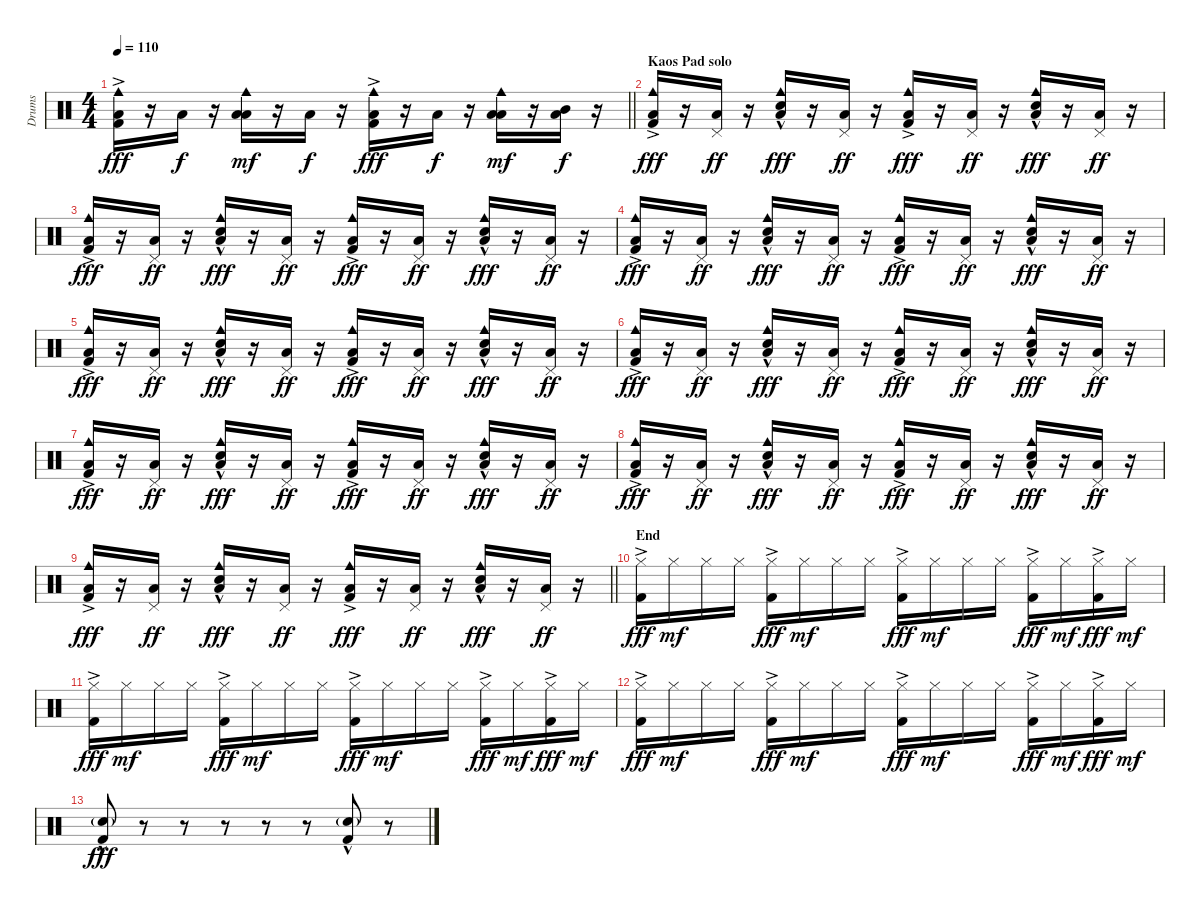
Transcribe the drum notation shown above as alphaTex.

\track ("Drums" "Drums") {instrument percussion}
\staff {score}
\articulation defaults
\ts (4 4)
\tempo 110
\clef neutral
\barLineRight lightlight
\ks c
("Cowbell medium (hit)" "Low Floor Tom (hit)" "Kick (hit) 2"{ac}).16{dy fff} r.16 "Low Floor Tom (hit)".16{dy f} r.16 ("Cowbell medium (hit)" "Low Tom (hit)" "Low Floor Tom (hit)").16{dy mf} r.16 "Low Floor Tom (hit)".16{dy f} r.16 ("Cowbell medium (hit)" "Low Floor Tom (hit)" "Kick (hit) 2"{ac}).16{dy fff} r.16 "Low Floor Tom (hit)".16{dy f} r.16 ("Cowbell medium (hit)" "Low Tom (hit)" "Low Floor Tom (hit)").16{dy mf} r.16 ("Mid Tom (hit)" "Low Floor Tom (hit)").16{dy f} r.16 |
\section ("" "Kaos Pad solo")
("Cowbell medium (hit)" "Low Floor Tom (hit)" "Kick (hit) 2"{ac}).16{dy fff} r.16 ("Pedal Hi-Hat (hit)" "Low Floor Tom (hit)").16{dy ff} r.16 ("Cowbell medium (hit)" "Electric Snare (hit)"{hac} "Low Floor Tom (hit)").16{dy fff} r.16 ("Pedal Hi-Hat (hit)" "Low Floor Tom (hit)").16{dy ff} r.16 ("Cowbell medium (hit)" "Low Floor Tom (hit)" "Kick (hit) 2"{ac}).16{dy fff} r.16 ("Pedal Hi-Hat (hit)" "Low Floor Tom (hit)").16{dy ff} r.16 ("Cowbell medium (hit)" "Electric Snare (hit)"{hac} "Low Floor Tom (hit)").16{dy fff} r.16 ("Pedal Hi-Hat (hit)" "Low Floor Tom (hit)").16{dy ff} r.16 |
("Cowbell medium (hit)" "Low Floor Tom (hit)" "Kick (hit) 2"{ac}).16{dy fff} r.16 ("Pedal Hi-Hat (hit)" "Low Floor Tom (hit)").16{dy ff} r.16 ("Cowbell medium (hit)" "Electric Snare (hit)"{hac} "Low Floor Tom (hit)").16{dy fff} r.16 ("Pedal Hi-Hat (hit)" "Low Floor Tom (hit)").16{dy ff} r.16 ("Cowbell medium (hit)" "Low Floor Tom (hit)" "Kick (hit) 2"{ac}).16{dy fff} r.16 ("Pedal Hi-Hat (hit)" "Low Floor Tom (hit)").16{dy ff} r.16 ("Cowbell medium (hit)" "Electric Snare (hit)"{hac} "Low Floor Tom (hit)").16{dy fff} r.16 ("Pedal Hi-Hat (hit)" "Low Floor Tom (hit)").16{dy ff} r.16 |
("Cowbell medium (hit)" "Low Floor Tom (hit)" "Kick (hit) 2"{ac}).16{dy fff} r.16 ("Pedal Hi-Hat (hit)" "Low Floor Tom (hit)").16{dy ff} r.16 ("Cowbell medium (hit)" "Electric Snare (hit)"{hac} "Low Floor Tom (hit)").16{dy fff} r.16 ("Pedal Hi-Hat (hit)" "Low Floor Tom (hit)").16{dy ff} r.16 ("Cowbell medium (hit)" "Low Floor Tom (hit)" "Kick (hit) 2"{ac}).16{dy fff} r.16 ("Pedal Hi-Hat (hit)" "Low Floor Tom (hit)").16{dy ff} r.16 ("Cowbell medium (hit)" "Electric Snare (hit)"{hac} "Low Floor Tom (hit)").16{dy fff} r.16 ("Pedal Hi-Hat (hit)" "Low Floor Tom (hit)").16{dy ff} r.16 |
("Cowbell medium (hit)" "Low Floor Tom (hit)" "Kick (hit) 2"{ac}).16{dy fff} r.16 ("Pedal Hi-Hat (hit)" "Low Floor Tom (hit)").16{dy ff} r.16 ("Cowbell medium (hit)" "Electric Snare (hit)"{hac} "Low Floor Tom (hit)").16{dy fff} r.16 ("Pedal Hi-Hat (hit)" "Low Floor Tom (hit)").16{dy ff} r.16 ("Cowbell medium (hit)" "Low Floor Tom (hit)" "Kick (hit) 2"{ac}).16{dy fff} r.16 ("Pedal Hi-Hat (hit)" "Low Floor Tom (hit)").16{dy ff} r.16 ("Cowbell medium (hit)" "Electric Snare (hit)"{hac} "Low Floor Tom (hit)").16{dy fff} r.16 ("Pedal Hi-Hat (hit)" "Low Floor Tom (hit)").16{dy ff} r.16 |
("Cowbell medium (hit)" "Low Floor Tom (hit)" "Kick (hit) 2"{ac}).16{dy fff} r.16 ("Pedal Hi-Hat (hit)" "Low Floor Tom (hit)").16{dy ff} r.16 ("Cowbell medium (hit)" "Electric Snare (hit)"{hac} "Low Floor Tom (hit)").16{dy fff} r.16 ("Pedal Hi-Hat (hit)" "Low Floor Tom (hit)").16{dy ff} r.16 ("Cowbell medium (hit)" "Low Floor Tom (hit)" "Kick (hit) 2"{ac}).16{dy fff} r.16 ("Pedal Hi-Hat (hit)" "Low Floor Tom (hit)").16{dy ff} r.16 ("Cowbell medium (hit)" "Electric Snare (hit)"{hac} "Low Floor Tom (hit)").16{dy fff} r.16 ("Pedal Hi-Hat (hit)" "Low Floor Tom (hit)").16{dy ff} r.16 |
("Cowbell medium (hit)" "Low Floor Tom (hit)" "Kick (hit) 2"{ac}).16{dy fff} r.16 ("Pedal Hi-Hat (hit)" "Low Floor Tom (hit)").16{dy ff} r.16 ("Cowbell medium (hit)" "Electric Snare (hit)"{hac} "Low Floor Tom (hit)").16{dy fff} r.16 ("Pedal Hi-Hat (hit)" "Low Floor Tom (hit)").16{dy ff} r.16 ("Cowbell medium (hit)" "Low Floor Tom (hit)" "Kick (hit) 2"{ac}).16{dy fff} r.16 ("Pedal Hi-Hat (hit)" "Low Floor Tom (hit)").16{dy ff} r.16 ("Cowbell medium (hit)" "Electric Snare (hit)"{hac} "Low Floor Tom (hit)").16{dy fff} r.16 ("Pedal Hi-Hat (hit)" "Low Floor Tom (hit)").16{dy ff} r.16 |
("Cowbell medium (hit)" "Low Floor Tom (hit)" "Kick (hit) 2"{ac}).16{dy fff} r.16 ("Pedal Hi-Hat (hit)" "Low Floor Tom (hit)").16{dy ff} r.16 ("Cowbell medium (hit)" "Electric Snare (hit)"{hac} "Low Floor Tom (hit)").16{dy fff} r.16 ("Pedal Hi-Hat (hit)" "Low Floor Tom (hit)").16{dy ff} r.16 ("Cowbell medium (hit)" "Low Floor Tom (hit)" "Kick (hit) 2"{ac}).16{dy fff} r.16 ("Pedal Hi-Hat (hit)" "Low Floor Tom (hit)").16{dy ff} r.16 ("Cowbell medium (hit)" "Electric Snare (hit)"{hac} "Low Floor Tom (hit)").16{dy fff} r.16 ("Pedal Hi-Hat (hit)" "Low Floor Tom (hit)").16{dy ff} r.16 |
\barLineRight lightlight
("Cowbell medium (hit)" "Low Floor Tom (hit)" "Kick (hit) 2"{ac}).16{dy fff} r.16 ("Pedal Hi-Hat (hit)" "Low Floor Tom (hit)").16{dy ff} r.16 ("Cowbell medium (hit)" "Electric Snare (hit)"{hac} "Low Floor Tom (hit)").16{dy fff} r.16 ("Pedal Hi-Hat (hit)" "Low Floor Tom (hit)").16{dy ff} r.16 ("Cowbell medium (hit)" "Low Floor Tom (hit)" "Kick (hit) 2"{ac}).16{dy fff} r.16 ("Pedal Hi-Hat (hit)" "Low Floor Tom (hit)").16{dy ff} r.16 ("Cowbell medium (hit)" "Electric Snare (hit)"{hac} "Low Floor Tom (hit)").16{dy fff} r.16 ("Pedal Hi-Hat (hit)" "Low Floor Tom (hit)").16{dy ff} r.16 |
\section ("" "End")
("Hi-Hat (closed)" "Kick (hit) 2"{ac}).16{dy fff} "Hi-Hat (closed)".16{dy mf} "Hi-Hat (closed)".16 "Hi-Hat (closed)".16 ("Hi-Hat (closed)" "Kick (hit) 2"{ac}).16{dy fff} "Hi-Hat (closed)".16{dy mf} "Hi-Hat (closed)".16 "Hi-Hat (closed)".16 ("Hi-Hat (closed)" "Kick (hit) 2"{ac}).16{dy fff} "Hi-Hat (closed)".16{dy mf} "Hi-Hat (closed)".16 "Hi-Hat (closed)".16 ("Hi-Hat (closed)" "Kick (hit) 2"{ac}).16{dy fff} "Hi-Hat (closed)".16{dy mf} ("Hi-Hat (closed)" "Kick (hit) 2"{ac}).16{dy fff} "Hi-Hat (closed)".16{dy mf} |
("Hi-Hat (closed)" "Kick (hit) 2"{ac}).16{dy fff} "Hi-Hat (closed)".16{dy mf} "Hi-Hat (closed)".16 "Hi-Hat (closed)".16 ("Hi-Hat (closed)" "Kick (hit) 2"{ac}).16{dy fff} "Hi-Hat (closed)".16{dy mf} "Hi-Hat (closed)".16 "Hi-Hat (closed)".16 ("Hi-Hat (closed)" "Kick (hit) 2"{ac}).16{dy fff} "Hi-Hat (closed)".16{dy mf} "Hi-Hat (closed)".16 "Hi-Hat (closed)".16 ("Hi-Hat (closed)" "Kick (hit) 2"{ac}).16{dy fff} "Hi-Hat (closed)".16{dy mf} ("Hi-Hat (closed)" "Kick (hit) 2"{ac}).16{dy fff} "Hi-Hat (closed)".16{dy mf} |
("Hi-Hat (closed)" "Kick (hit) 2"{ac}).16{dy fff} "Hi-Hat (closed)".16{dy mf} "Hi-Hat (closed)".16 "Hi-Hat (closed)".16 ("Hi-Hat (closed)" "Kick (hit) 2"{ac}).16{dy fff} "Hi-Hat (closed)".16{dy mf} "Hi-Hat (closed)".16 "Hi-Hat (closed)".16 ("Hi-Hat (closed)" "Kick (hit) 2"{ac}).16{dy fff} "Hi-Hat (closed)".16{dy mf} "Hi-Hat (closed)".16 "Hi-Hat (closed)".16 ("Hi-Hat (closed)" "Kick (hit) 2"{ac}).16{dy fff} "Hi-Hat (closed)".16{dy mf} ("Hi-Hat (closed)" "Kick (hit) 2"{ac}).16{dy fff} "Hi-Hat (closed)".16{dy mf} |
("Electric Snare (hit)"{g} "Kick (hit) 2"{hac}).8{dy fff} r.8 r.8 r.8 r.8 r.8 ("Electric Snare (hit)"{g} "Kick (hit) 2"{hac}).8 r.8
